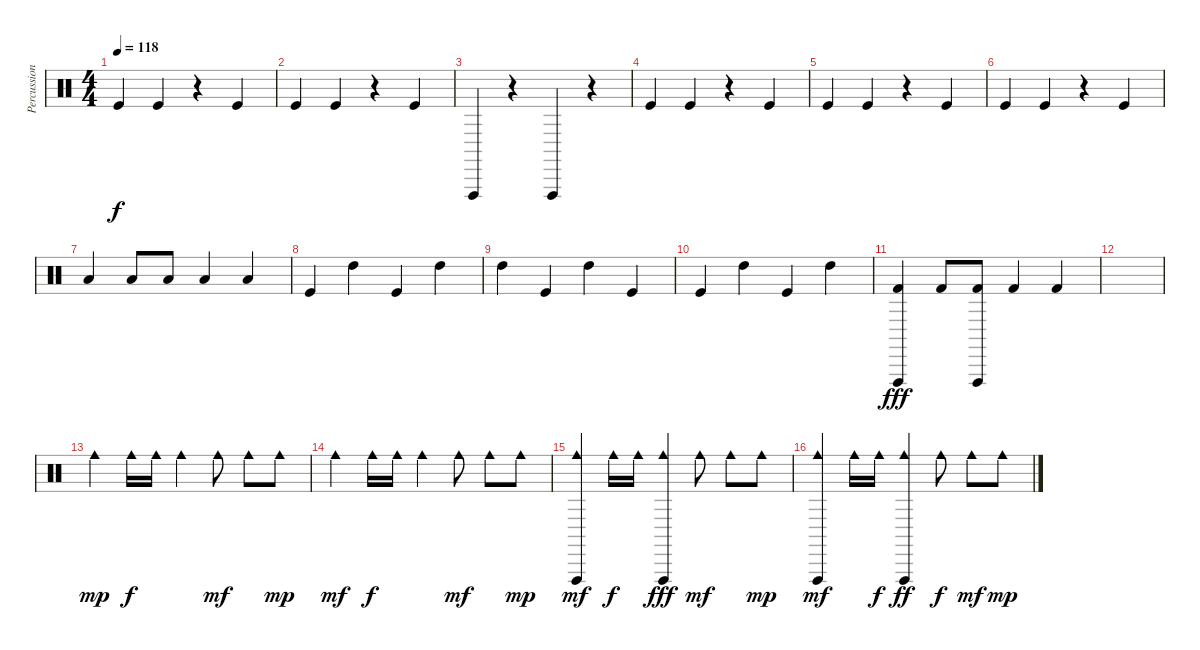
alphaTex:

\track ("Percussion" "Percussion") {instrument percussion}
\staff {score}
\articulation defaults
\ts (4 4)
\tempo 118
\clef neutral
\ks c "Kick (hit)".4{dy f} "Kick (hit)".4
r.4 "Kick (hit)".4 |
"Kick (hit)".4 "Kick (hit)".4 r.4 "Kick (hit)".4 |
"Vibraslap (hit)".4 r.4 "Vibraslap (hit)".4 r.4 |
"Kick (hit)".4 "Kick (hit)".4 r.4 "Kick (hit)".4 |
"Kick (hit)".4 "Kick (hit)".4 r.4 "Kick (hit)".4 |
"Kick (hit)".4 "Kick (hit)".4 r.4 "Kick (hit)".4 |
"Low Tom (hit)".4 "Low Tom (hit)".8 "Low Tom (hit)".8 "Low Tom (hit)".4 "Low Tom (hit)".4 |
"Kick (hit)".4 "High Tom (hit)".4 "Kick (hit)".4 "High Tom (hit)".4 |
"High Tom (hit)".4 "Kick (hit)".4 "High Tom (hit)".4 "Kick (hit)".4 |
"Kick (hit)".4 "High Tom (hit)".4 "Kick (hit)".4 "High Tom (hit)".4 |
("Vibraslap (hit)" "Kick (hit) 2").4{dy fff} "Kick (hit) 2".8 ("Vibraslap (hit)" "Kick (hit) 2").8 "Kick (hit) 2".4 "Kick (hit) 2".4 |
|
"Cowbell medium (hit)".4{dy mp} "Cowbell medium (hit)".16{dy f} "Cowbell medium (hit)".16 "Cowbell medium (hit)".4 "Cowbell medium (hit)".8{dy mf} "Cowbell medium (hit)".8 "Cowbell medium (hit)".8{dy mp} |
"Cowbell medium (hit)".4{dy mf} "Cowbell medium (hit)".16{dy f} "Cowbell medium (hit)".16 "Cowbell medium (hit)".4 "Cowbell medium (hit)".8{dy mf} "Cowbell medium (hit)".8 "Cowbell medium (hit)".8{dy mp} |
("Vibraslap (hit)" "Cowbell medium (hit)").4{dy mf} "Cowbell medium (hit)".16{dy f} "Cowbell medium (hit)".16 ("Vibraslap (hit)" "Cowbell medium (hit)").4{dy fff} "Cowbell medium (hit)".8{dy mf} "Cowbell medium (hit)".8 "Cowbell medium (hit)".8{dy mp} |
("Vibraslap (hit)" "Cowbell medium (hit)").4{dy mf} "Cowbell medium (hit)".16 "Cowbell medium (hit)".16{dy f} ("Vibraslap (hit)" "Cowbell medium (hit)").4{dy ff} "Cowbell medium (hit)".8{dy f} "Cowbell medium (hit)".8{dy mf} "Cowbell medium (hit)".8{dy mp}
